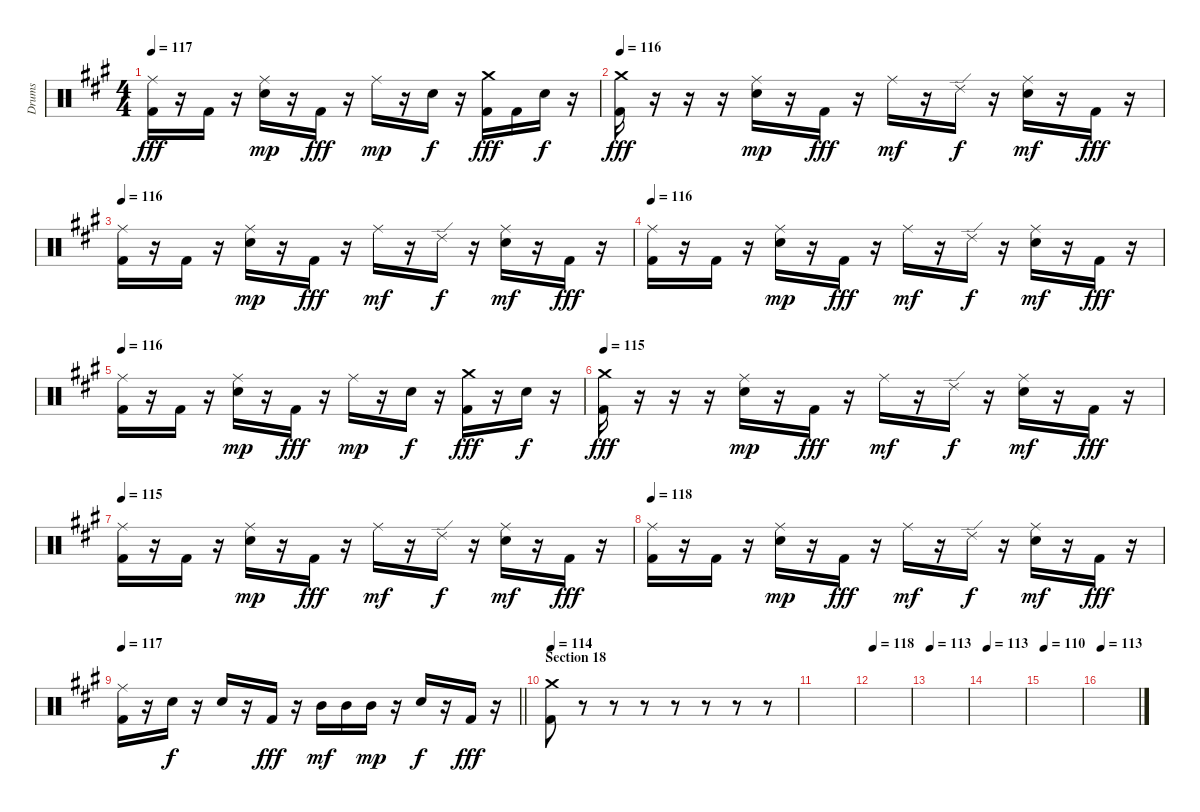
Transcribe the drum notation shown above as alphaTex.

\track ("Drums" "Drums") {instrument percussion}
\staff {score}
\articulation defaults
\ts (4 4)
\tempo 117
\clef neutral
\ks f#minor
("Ride (middle)" "Kick (hit) 2").16{dy fff} r.16 "Kick (hit) 2".16 r.16 ("Ride (middle)" "Electric Snare (hit)").16{dy mp} r.16 "Kick (hit) 2".16{dy fff} r.16 "Ride (middle)".16{dy mp} r.16 "Electric Snare (hit)".16{dy f} r.16 ("Crash medium (hit)" "Kick (hit) 2").16{dy fff} "Kick (hit) 2".16 "Electric Snare (hit)".16{dy f} r.16 |
\tempo 116
("Crash medium (hit)" "Kick (hit) 2").16{dy fff} r.16 r.16 r.16 ("Ride (middle)" "Electric Snare (hit)").16{dy mp} r.16 "Kick (hit) 2".16{dy fff} r.16 "Ride (middle)".16{dy mf} r.16 "Ride (edge) 2".16{dy f} r.16 ("Ride (middle)" "Electric Snare (hit)").16{dy mf} r.16 "Kick (hit) 2".16{dy fff} r.16 |
\tempo 116
("Ride (middle)" "Kick (hit) 2").16 r.16 "Kick (hit) 2".16 r.16 ("Ride (middle)" "Electric Snare (hit)").16{dy mp} r.16 "Kick (hit) 2".16{dy fff} r.16 "Ride (middle)".16{dy mf} r.16 "Ride (edge) 2".16{dy f} r.16 ("Ride (middle)" "Electric Snare (hit)").16{dy mf} r.16 "Kick (hit) 2".16{dy fff} r.16 |
\tempo 116
("Ride (middle)" "Kick (hit) 2").16 r.16 "Kick (hit) 2".16 r.16 ("Ride (middle)" "Electric Snare (hit)").16{dy mp} r.16 "Kick (hit) 2".16{dy fff} r.16 "Ride (middle)".16{dy mf} r.16 "Ride (edge) 2".16{dy f} r.16 ("Ride (middle)" "Electric Snare (hit)").16{dy mf} r.16 "Kick (hit) 2".16{dy fff} r.16 |
\tempo 116
("Ride (middle)" "Kick (hit) 2").16 r.16 "Kick (hit) 2".16 r.16 ("Ride (middle)" "Electric Snare (hit)").16{dy mp} r.16 "Kick (hit) 2".16{dy fff} r.16 "Ride (middle)".16{dy mp} r.16 "Electric Snare (hit)".16{dy f} r.16 ("Crash medium (hit)" "Kick (hit) 2").16{dy fff} r.16 "Electric Snare (hit)".16{dy f} r.16 |
\tempo 115
("Crash medium (hit)" "Kick (hit) 2").16{dy fff} r.16 r.16 r.16 ("Ride (middle)" "Electric Snare (hit)").16{dy mp} r.16 "Kick (hit) 2".16{dy fff} r.16 "Ride (middle)".16{dy mf} r.16 "Ride (edge) 2".16{dy f} r.16 ("Ride (middle)" "Electric Snare (hit)").16{dy mf} r.16 "Kick (hit) 2".16{dy fff} r.16 |
\tempo 115
("Ride (middle)" "Kick (hit) 2").16 r.16 "Kick (hit) 2".16 r.16 ("Ride (middle)" "Electric Snare (hit)").16{dy mp} r.16 "Kick (hit) 2".16{dy fff} r.16 "Ride (middle)".16{dy mf} r.16 "Ride (edge) 2".16{dy f} r.16 ("Ride (middle)" "Electric Snare (hit)").16{dy mf} r.16 "Kick (hit) 2".16{dy fff} r.16 |
\tempo 118
("Ride (middle)" "Kick (hit) 2").16 r.16 "Kick (hit) 2".16 r.16 ("Ride (middle)" "Electric Snare (hit)").16{dy mp} r.16 "Kick (hit) 2".16{dy fff} r.16 "Ride (middle)".16{dy mf} r.16 "Ride (edge) 2".16{dy f} r.16 ("Ride (middle)" "Electric Snare (hit)").16{dy mf} r.16 "Kick (hit) 2".16{dy fff} r.16 |
\tempo 117
\barLineRight lightlight
("Ride (middle)" "Kick (hit) 2").16 r.16 "Electric Snare (hit)".16{dy f} r.16 "Electric Snare (hit)".16 r.16 "Kick (hit) 2".16{dy fff} r.16 "Mid Tom (hit)".16{dy mf} "Mid Tom (hit)".16 "Mid Tom (hit)".16{dy mp} r.16 "Electric Snare (hit)".16{dy f} r.16 "Kick (hit) 2".16{dy fff} r.16 |
\section ("" "Section 18")
\tempo 114
("Crash medium (hit)" "Kick (hit) 2").8 r.8 r.8 r.8 r.8 r.8 r.8 r.8 |
|
\tempo 118
|
\tempo 113
|
\tempo 113
|
\tempo 110
|
\tempo 113
